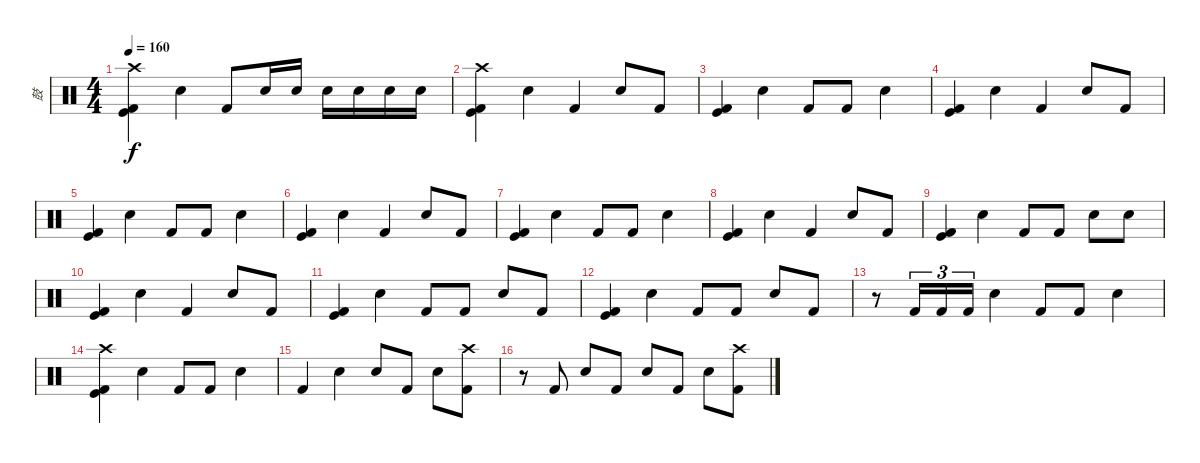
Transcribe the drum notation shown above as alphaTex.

\track ("鼓" "鼓") {instrument percussion}
\staff {score}
\articulation defaults
\ts (4 4)
\tempo 160
\clef neutral
\ks c
("Crash high (hit)" "Kick (hit) 2" "Kick (hit)").4{dy f} "Snare (hit) 2".4 "Kick (hit) 2".8 "Snare (hit) 2".16 "Snare (hit) 2".16 "Snare (hit) 2".16 "Snare (hit) 2".16 "Snare (hit) 2".16 "Snare (hit) 2".16 |
("Crash high (hit)" "Kick (hit)" "Kick (hit) 2").4 "Snare (hit) 2".4 "Kick (hit) 2".4 "Snare (hit) 2".8 "Kick (hit) 2".8 |
("Kick (hit) 2" "Kick (hit)").4 "Snare (hit) 2".4 "Kick (hit) 2".8 "Kick (hit) 2".8 "Snare (hit) 2".4 |
("Kick (hit)" "Kick (hit) 2").4 "Snare (hit) 2".4 "Kick (hit) 2".4 "Snare (hit) 2".8 "Kick (hit) 2".8 |
("Kick (hit) 2" "Kick (hit)").4 "Snare (hit) 2".4 "Kick (hit) 2".8 "Kick (hit) 2".8 "Snare (hit) 2".4 |
("Kick (hit)" "Kick (hit) 2").4 "Snare (hit) 2".4 "Kick (hit) 2".4 "Snare (hit) 2".8 "Kick (hit) 2".8 |
("Kick (hit) 2" "Kick (hit)").4 "Snare (hit) 2".4 "Kick (hit) 2".8 "Kick (hit) 2".8 "Snare (hit) 2".4 |
("Kick (hit)" "Kick (hit) 2").4 "Snare (hit) 2".4 "Kick (hit) 2".4 "Snare (hit) 2".8 "Kick (hit) 2".8 |
("Kick (hit) 2" "Kick (hit)").4 "Snare (hit) 2".4 "Kick (hit) 2".8 "Kick (hit) 2".8 "Snare (hit) 2".8 "Snare (hit) 2".8 |
("Kick (hit)" "Kick (hit) 2").4 "Snare (hit) 2".4 "Kick (hit) 2".4 "Snare (hit) 2".8 "Kick (hit) 2".8 |
("Kick (hit) 2" "Kick (hit)").4 "Snare (hit) 2".4 "Kick (hit) 2".8 "Kick (hit) 2".8 "Snare (hit) 2".8 "Kick (hit) 2".8 |
("Kick (hit)" "Kick (hit) 2").4 "Snare (hit) 2".4 "Kick (hit) 2".8 "Kick (hit) 2".8 "Snare (hit) 2".8 "Kick (hit) 2".8 |
r.8 "Kick (hit) 2".16{tu (3 2)} "Kick (hit) 2".16{tu (3 2)} "Kick (hit) 2".16{tu (3 2)} "Snare (hit) 2".4 "Kick (hit) 2".8 "Kick (hit) 2".8 "Snare (hit) 2".4 |
("Crash high (hit)" "Kick (hit) 2" "Kick (hit)").4 "Snare (hit) 2".4 "Kick (hit) 2".8 "Kick (hit) 2".8 "Snare (hit) 2".4 |
"Kick (hit) 2".4 "Snare (hit) 2".4 "Snare (hit) 2".8 "Kick (hit) 2".8 "Snare (hit) 2".8 ("Crash high (hit)" "Kick (hit) 2").8 |
r.8 "Kick (hit) 2".8 "Snare (hit) 2".8 "Kick (hit) 2".8 "Snare (hit) 2".8 "Kick (hit) 2".8 "Snare (hit) 2".8 ("Crash high (hit)" "Kick (hit) 2").8
